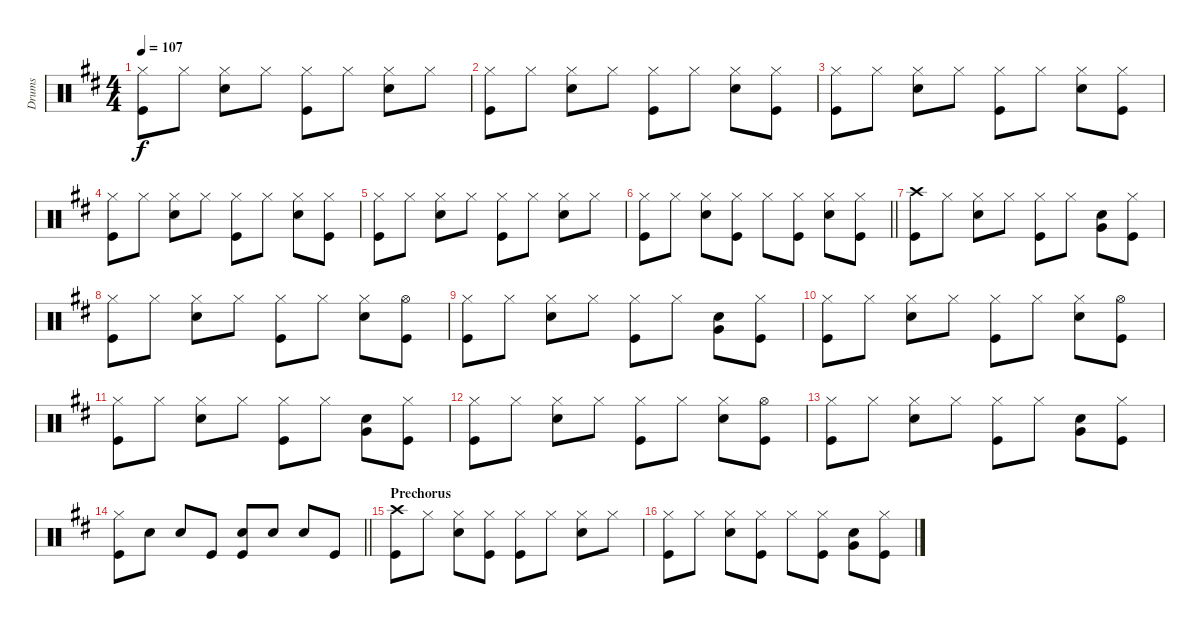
\track ("Drums" "Drums") {instrument percussion}
\staff {score}
\articulation defaults
\ts (4 4)
\tempo 107
\clef neutral
\ks d
("Hi-Hat (closed)" "Kick (hit)").8{dy f} "Hi-Hat (closed)".8 ("Hi-Hat (closed)" "Snare (hit) 2").8 "Hi-Hat (closed)".8 ("Hi-Hat (closed)" "Kick (hit)").8 "Hi-Hat (closed)".8 ("Hi-Hat (closed)" "Snare (hit) 2").8 "Hi-Hat (closed)".8 |
("Hi-Hat (closed)" "Kick (hit)").8 "Hi-Hat (closed)".8 ("Hi-Hat (closed)" "Snare (hit) 2").8 "Hi-Hat (closed)".8 ("Hi-Hat (closed)" "Kick (hit)").8 "Hi-Hat (closed)".8 ("Hi-Hat (closed)" "Snare (hit) 2").8 ("Hi-Hat (closed)" "Kick (hit)").8 |
("Hi-Hat (closed)" "Kick (hit)").8 "Hi-Hat (closed)".8 ("Hi-Hat (closed)" "Snare (hit) 2").8 "Hi-Hat (closed)".8 ("Hi-Hat (closed)" "Kick (hit)").8 "Hi-Hat (closed)".8 ("Hi-Hat (closed)" "Snare (hit) 2").8 ("Hi-Hat (closed)" "Kick (hit)").8 |
("Hi-Hat (closed)" "Kick (hit)").8 "Hi-Hat (closed)".8 ("Hi-Hat (closed)" "Snare (hit) 2").8 "Hi-Hat (closed)".8 ("Hi-Hat (closed)" "Kick (hit)").8 "Hi-Hat (closed)".8 ("Hi-Hat (closed)" "Snare (hit) 2").8 ("Hi-Hat (closed)" "Kick (hit)").8 |
("Hi-Hat (closed)" "Kick (hit)").8 "Hi-Hat (closed)".8 ("Hi-Hat (closed)" "Snare (hit) 2").8 "Hi-Hat (closed)".8 ("Hi-Hat (closed)" "Kick (hit)").8 "Hi-Hat (closed)".8 ("Hi-Hat (closed)" "Snare (hit) 2").8 "Hi-Hat (closed)".8 |
\barLineRight lightlight
("Hi-Hat (closed)" "Kick (hit)").8 "Hi-Hat (closed)".8 ("Hi-Hat (closed)" "Snare (hit) 2").8 ("Hi-Hat (closed)" "Kick (hit)").8 "Hi-Hat (closed)".8 ("Hi-Hat (closed)" "Kick (hit)").8 ("Hi-Hat (closed)" "Snare (hit) 2").8 ("Hi-Hat (closed)" "Kick (hit)").8 |
("Crash high (hit)" "Kick (hit)").8 "Hi-Hat (closed)".8 ("Hi-Hat (closed)" "Snare (hit) 2").8 "Hi-Hat (closed)".8 ("Hi-Hat (closed)" "Kick (hit)").8 "Hi-Hat (closed)".8 ("Snare (hit) 2" "Very Low Tom (hit)").8 ("Hi-Hat (closed)" "Kick (hit)").8 |
("Hi-Hat (closed)" "Kick (hit)").8 "Hi-Hat (closed)".8 ("Hi-Hat (closed)" "Snare (hit) 2").8 "Hi-Hat (closed)".8 ("Hi-Hat (closed)" "Kick (hit)").8 "Hi-Hat (closed)".8 ("Hi-Hat (closed)" "Snare (hit) 2").8 ("Hi-Hat (open)" "Kick (hit)").8 |
("Hi-Hat (closed)" "Kick (hit)").8 "Hi-Hat (closed)".8 ("Hi-Hat (closed)" "Snare (hit) 2").8 "Hi-Hat (closed)".8 ("Hi-Hat (closed)" "Kick (hit)").8 "Hi-Hat (closed)".8 ("Snare (hit) 2" "Very Low Tom (hit)").8 ("Hi-Hat (closed)" "Kick (hit)").8 |
("Hi-Hat (closed)" "Kick (hit)").8 "Hi-Hat (closed)".8 ("Hi-Hat (closed)" "Snare (hit) 2").8 "Hi-Hat (closed)".8 ("Hi-Hat (closed)" "Kick (hit)").8 "Hi-Hat (closed)".8 ("Hi-Hat (closed)" "Snare (hit) 2").8 ("Hi-Hat (open)" "Kick (hit)").8 |
("Hi-Hat (closed)" "Kick (hit)").8 "Hi-Hat (closed)".8 ("Hi-Hat (closed)" "Snare (hit) 2").8 "Hi-Hat (closed)".8 ("Hi-Hat (closed)" "Kick (hit)").8 "Hi-Hat (closed)".8 ("Snare (hit) 2" "Very Low Tom (hit)").8 ("Hi-Hat (closed)" "Kick (hit)").8 |
("Hi-Hat (closed)" "Kick (hit)").8 "Hi-Hat (closed)".8 ("Hi-Hat (closed)" "Snare (hit) 2").8 "Hi-Hat (closed)".8 ("Hi-Hat (closed)" "Kick (hit)").8 "Hi-Hat (closed)".8 ("Hi-Hat (closed)" "Snare (hit) 2").8 ("Hi-Hat (open)" "Kick (hit)").8 |
("Hi-Hat (closed)" "Kick (hit)").8 "Hi-Hat (closed)".8 ("Hi-Hat (closed)" "Snare (hit) 2").8 "Hi-Hat (closed)".8 ("Hi-Hat (closed)" "Kick (hit)").8 "Hi-Hat (closed)".8 ("Snare (hit) 2" "Very Low Tom (hit)").8 ("Hi-Hat (closed)" "Kick (hit)").8 |
\barLineRight lightlight
("Hi-Hat (closed)" "Kick (hit)").8 "Snare (hit) 2".8 "Snare (hit) 2".8 "Kick (hit)".8 ("Snare (hit) 2" "Kick (hit)").8 "Snare (hit) 2".8 "Snare (hit) 2".8 "Kick (hit)".8 |
\section ("" "Prechorus")
("Crash high (hit)" "Kick (hit)").8 "Hi-Hat (closed)".8 ("Hi-Hat (closed)" "Snare (hit) 2").8 ("Hi-Hat (closed)" "Kick (hit)").8 ("Hi-Hat (closed)" "Kick (hit)").8 "Hi-Hat (closed)".8 ("Hi-Hat (closed)" "Snare (hit) 2").8 "Hi-Hat (closed)".8 |
("Hi-Hat (closed)" "Kick (hit)").8 "Hi-Hat (closed)".8 ("Hi-Hat (closed)" "Snare (hit) 2").8 ("Hi-Hat (closed)" "Kick (hit)").8 "Hi-Hat (closed)".8 ("Hi-Hat (closed)" "Kick (hit)").8 ("Snare (hit) 2" "Very Low Tom (hit)").8 ("Hi-Hat (closed)" "Kick (hit)").8
